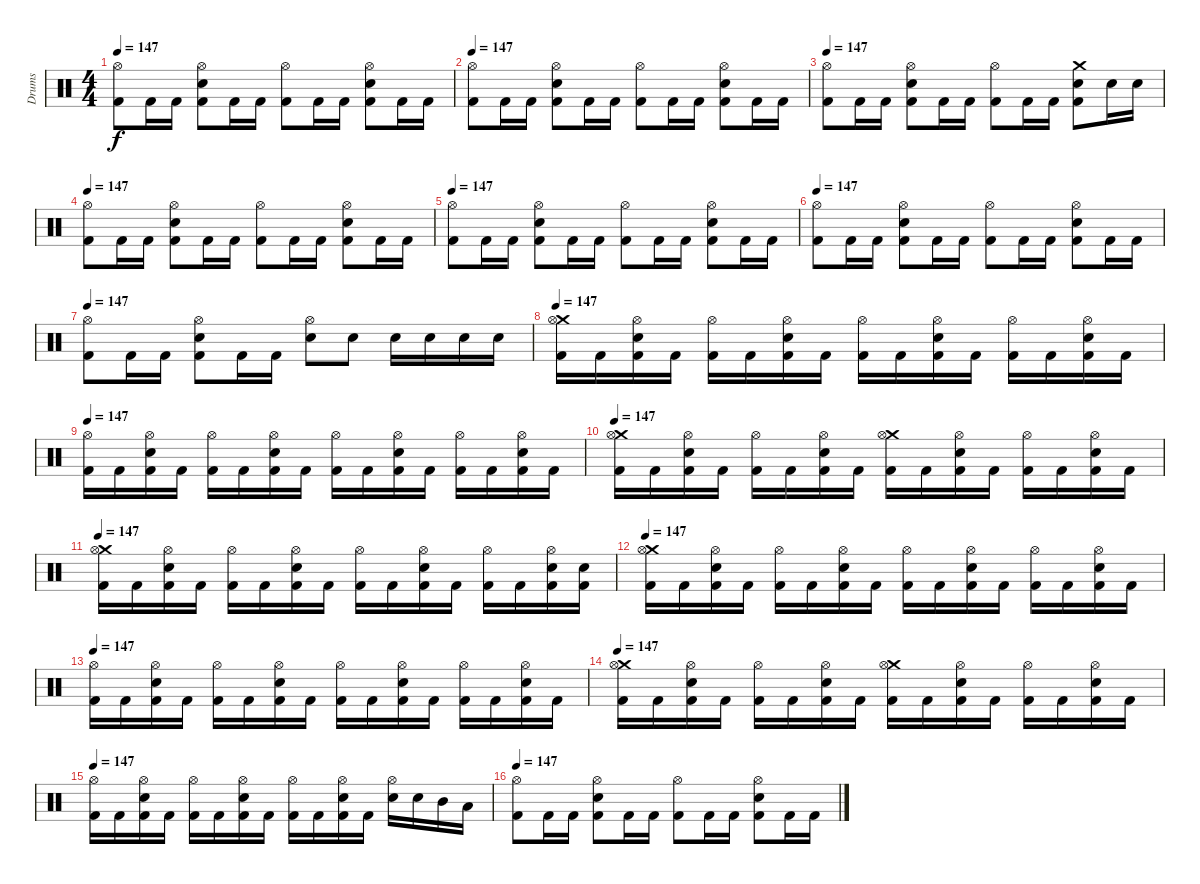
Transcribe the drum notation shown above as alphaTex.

\track ("Drums" "Drums") {instrument percussion}
\staff {score}
\articulation defaults
\ts (4 4)
\tempo 147
\clef neutral
\ks c
("Hi-Hat (open)" "Kick (hit) 2").8{dy f} "Kick (hit) 2".16 "Kick (hit) 2".16 ("Hi-Hat (open)" "Electric Snare (hit)" "Kick (hit) 2").8 "Kick (hit) 2".16 "Kick (hit) 2".16 ("Hi-Hat (open)" "Kick (hit) 2").8 "Kick (hit) 2".16 "Kick (hit) 2".16 ("Hi-Hat (open)" "Electric Snare (hit)" "Kick (hit) 2").8 "Kick (hit) 2".16 "Kick (hit) 2".16 |
\tempo 147
("Hi-Hat (open)" "Kick (hit) 2").8 "Kick (hit) 2".16 "Kick (hit) 2".16 ("Hi-Hat (open)" "Electric Snare (hit)" "Kick (hit) 2").8 "Kick (hit) 2".16 "Kick (hit) 2".16 ("Hi-Hat (open)" "Kick (hit) 2").8 "Kick (hit) 2".16 "Kick (hit) 2".16 ("Hi-Hat (open)" "Electric Snare (hit)" "Kick (hit) 2").8 "Kick (hit) 2".16 "Kick (hit) 2".16 |
\tempo 147
("Hi-Hat (open)" "Kick (hit) 2").8 "Kick (hit) 2".16 "Kick (hit) 2".16 ("Hi-Hat (open)" "Electric Snare (hit)" "Kick (hit) 2").8 "Kick (hit) 2".16 "Kick (hit) 2".16 ("Hi-Hat (open)" "Kick (hit) 2").8 "Kick (hit) 2".16 "Kick (hit) 2".16 ("Crash medium (hit)" "Electric Snare (hit)" "Kick (hit) 2").8 "Electric Snare (hit)".16 "Electric Snare (hit)".16 |
\tempo 147
("Hi-Hat (open)" "Kick (hit) 2").8 "Kick (hit) 2".16 "Kick (hit) 2".16 ("Hi-Hat (open)" "Electric Snare (hit)" "Kick (hit) 2").8 "Kick (hit) 2".16 "Kick (hit) 2".16 ("Hi-Hat (open)" "Kick (hit) 2").8 "Kick (hit) 2".16 "Kick (hit) 2".16 ("Hi-Hat (open)" "Electric Snare (hit)" "Kick (hit) 2").8 "Kick (hit) 2".16 "Kick (hit) 2".16 |
\tempo 147
("Hi-Hat (open)" "Kick (hit) 2").8 "Kick (hit) 2".16 "Kick (hit) 2".16 ("Hi-Hat (open)" "Electric Snare (hit)" "Kick (hit) 2").8 "Kick (hit) 2".16 "Kick (hit) 2".16 ("Hi-Hat (open)" "Kick (hit) 2").8 "Kick (hit) 2".16 "Kick (hit) 2".16 ("Hi-Hat (open)" "Electric Snare (hit)" "Kick (hit) 2").8 "Kick (hit) 2".16 "Kick (hit) 2".16 |
\tempo 147
("Hi-Hat (open)" "Kick (hit) 2").8 "Kick (hit) 2".16 "Kick (hit) 2".16 ("Hi-Hat (open)" "Electric Snare (hit)" "Kick (hit) 2").8 "Kick (hit) 2".16 "Kick (hit) 2".16 ("Hi-Hat (open)" "Kick (hit) 2").8 "Kick (hit) 2".16 "Kick (hit) 2".16 ("Hi-Hat (open)" "Electric Snare (hit)" "Kick (hit) 2").8 "Kick (hit) 2".16 "Kick (hit) 2".16 |
\tempo 147
("Hi-Hat (open)" "Kick (hit) 2").8 "Kick (hit) 2".16 "Kick (hit) 2".16 ("Hi-Hat (open)" "Electric Snare (hit)" "Kick (hit) 2").8 "Kick (hit) 2".16 "Kick (hit) 2".16 ("Hi-Hat (open)" "Snare (hit) 2").8 "Snare (hit) 2".8 "Snare (hit) 2".16 "Snare (hit) 2".16 "Snare (hit) 2".16 "Snare (hit) 2".16 |
\tempo 147
("Crash medium (hit)" "Hi-Hat (open)" "Kick (hit) 2").16 "Kick (hit) 2".16 ("Hi-Hat (open)" "Electric Snare (hit)" "Kick (hit) 2").16 "Kick (hit) 2".16 ("Hi-Hat (open)" "Kick (hit) 2").16 "Kick (hit) 2".16 ("Hi-Hat (open)" "Electric Snare (hit)" "Kick (hit) 2").16 "Kick (hit) 2".16 ("Hi-Hat (open)" "Kick (hit) 2").16 "Kick (hit) 2".16 ("Hi-Hat (open)" "Electric Snare (hit)" "Kick (hit) 2").16 "Kick (hit) 2".16 ("Hi-Hat (open)" "Kick (hit) 2").16 "Kick (hit) 2".16 ("Hi-Hat (open)" "Electric Snare (hit)" "Kick (hit) 2").16 "Kick (hit) 2".16 |
\tempo 147
("Hi-Hat (open)" "Kick (hit) 2").16 "Kick (hit) 2".16 ("Hi-Hat (open)" "Electric Snare (hit)" "Kick (hit) 2").16 "Kick (hit) 2".16 ("Hi-Hat (open)" "Kick (hit) 2").16 "Kick (hit) 2".16 ("Hi-Hat (open)" "Electric Snare (hit)" "Kick (hit) 2").16 "Kick (hit) 2".16 ("Hi-Hat (open)" "Kick (hit) 2").16 "Kick (hit) 2".16 ("Hi-Hat (open)" "Electric Snare (hit)" "Kick (hit) 2").16 "Kick (hit) 2".16 ("Hi-Hat (open)" "Kick (hit) 2").16 "Kick (hit) 2".16 ("Hi-Hat (open)" "Electric Snare (hit)" "Kick (hit) 2").16 "Kick (hit) 2".16 |
\tempo 147
("Crash medium (hit)" "Hi-Hat (open)" "Kick (hit) 2").16 "Kick (hit) 2".16 ("Hi-Hat (open)" "Electric Snare (hit)" "Kick (hit) 2").16 "Kick (hit) 2".16 ("Hi-Hat (open)" "Kick (hit) 2").16 "Kick (hit) 2".16 ("Hi-Hat (open)" "Electric Snare (hit)" "Kick (hit) 2").16 "Kick (hit) 2".16 ("Crash medium (hit)" "Hi-Hat (open)" "Kick (hit) 2").16 "Kick (hit) 2".16 ("Hi-Hat (open)" "Electric Snare (hit)" "Kick (hit) 2").16 "Kick (hit) 2".16 ("Hi-Hat (open)" "Kick (hit) 2").16 "Kick (hit) 2".16 ("Hi-Hat (open)" "Electric Snare (hit)" "Kick (hit) 2").16 "Kick (hit) 2".16 |
\tempo 147
("Crash medium (hit)" "Hi-Hat (open)" "Kick (hit) 2").16 "Kick (hit) 2".16 ("Hi-Hat (open)" "Electric Snare (hit)" "Kick (hit) 2").16 "Kick (hit) 2".16 ("Hi-Hat (open)" "Kick (hit) 2").16 "Kick (hit) 2".16 ("Hi-Hat (open)" "Electric Snare (hit)" "Kick (hit) 2").16 "Kick (hit) 2".16 ("Hi-Hat (open)" "Kick (hit) 2").16 "Kick (hit) 2".16 ("Hi-Hat (open)" "Electric Snare (hit)" "Kick (hit) 2").16 "Kick (hit) 2".16 ("Hi-Hat (open)" "Kick (hit) 2").16 "Kick (hit) 2".16 ("Hi-Hat (open)" "Electric Snare (hit)" "Kick (hit) 2").16 ("Electric Snare (hit)" "Kick (hit) 2").16 |
\tempo 147
("Crash medium (hit)" "Hi-Hat (open)" "Kick (hit) 2").16 "Kick (hit) 2".16 ("Hi-Hat (open)" "Electric Snare (hit)" "Kick (hit) 2").16 "Kick (hit) 2".16 ("Hi-Hat (open)" "Kick (hit) 2").16 "Kick (hit) 2".16 ("Hi-Hat (open)" "Electric Snare (hit)" "Kick (hit) 2").16 "Kick (hit) 2".16 ("Hi-Hat (open)" "Kick (hit) 2").16 "Kick (hit) 2".16 ("Hi-Hat (open)" "Electric Snare (hit)" "Kick (hit) 2").16 "Kick (hit) 2".16 ("Hi-Hat (open)" "Kick (hit) 2").16 "Kick (hit) 2".16 ("Hi-Hat (open)" "Electric Snare (hit)" "Kick (hit) 2").16 "Kick (hit) 2".16 |
\tempo 147
("Hi-Hat (open)" "Kick (hit) 2").16 "Kick (hit) 2".16 ("Hi-Hat (open)" "Electric Snare (hit)" "Kick (hit) 2").16 "Kick (hit) 2".16 ("Hi-Hat (open)" "Kick (hit) 2").16 "Kick (hit) 2".16 ("Hi-Hat (open)" "Electric Snare (hit)" "Kick (hit) 2").16 "Kick (hit) 2".16 ("Hi-Hat (open)" "Kick (hit) 2").16 "Kick (hit) 2".16 ("Hi-Hat (open)" "Electric Snare (hit)" "Kick (hit) 2").16 "Kick (hit) 2".16 ("Hi-Hat (open)" "Kick (hit) 2").16 "Kick (hit) 2".16 ("Hi-Hat (open)" "Electric Snare (hit)" "Kick (hit) 2").16 "Kick (hit) 2".16 |
\tempo 147
("Crash medium (hit)" "Hi-Hat (open)" "Kick (hit) 2").16 "Kick (hit) 2".16 ("Hi-Hat (open)" "Electric Snare (hit)" "Kick (hit) 2").16 "Kick (hit) 2".16 ("Hi-Hat (open)" "Kick (hit) 2").16 "Kick (hit) 2".16 ("Hi-Hat (open)" "Electric Snare (hit)" "Kick (hit) 2").16 "Kick (hit) 2".16 ("Crash medium (hit)" "Hi-Hat (open)" "Kick (hit) 2").16 "Kick (hit) 2".16 ("Hi-Hat (open)" "Electric Snare (hit)" "Kick (hit) 2").16 "Kick (hit) 2".16 ("Hi-Hat (open)" "Kick (hit) 2").16 "Kick (hit) 2".16 ("Hi-Hat (open)" "Electric Snare (hit)" "Kick (hit) 2").16 "Kick (hit) 2".16 |
\tempo 147
("Hi-Hat (open)" "Kick (hit) 2").16 "Kick (hit) 2".16 ("Hi-Hat (open)" "Electric Snare (hit)" "Kick (hit) 2").16 "Kick (hit) 2".16 ("Hi-Hat (open)" "Kick (hit) 2").16 "Kick (hit) 2".16 ("Hi-Hat (open)" "Electric Snare (hit)" "Kick (hit) 2").16 "Kick (hit) 2".16 ("Hi-Hat (open)" "Kick (hit) 2").16 "Kick (hit) 2".16 ("Hi-Hat (open)" "Electric Snare (hit)" "Kick (hit) 2").16 "Kick (hit) 2".16 ("Hi-Hat (open)" "Electric Snare (hit)").16 "Electric Snare (hit)".16 "Mid Tom (hit)".16 "Low Tom (hit)".16 |
\tempo 147
("Hi-Hat (open)" "Kick (hit) 2").8 "Kick (hit) 2".16 "Kick (hit) 2".16 ("Hi-Hat (open)" "Electric Snare (hit)" "Kick (hit) 2").8 "Kick (hit) 2".16 "Kick (hit) 2".16 ("Hi-Hat (open)" "Kick (hit) 2").8 "Kick (hit) 2".16 "Kick (hit) 2".16 ("Hi-Hat (open)" "Electric Snare (hit)" "Kick (hit) 2").8 "Kick (hit) 2".16 "Kick (hit) 2".16
